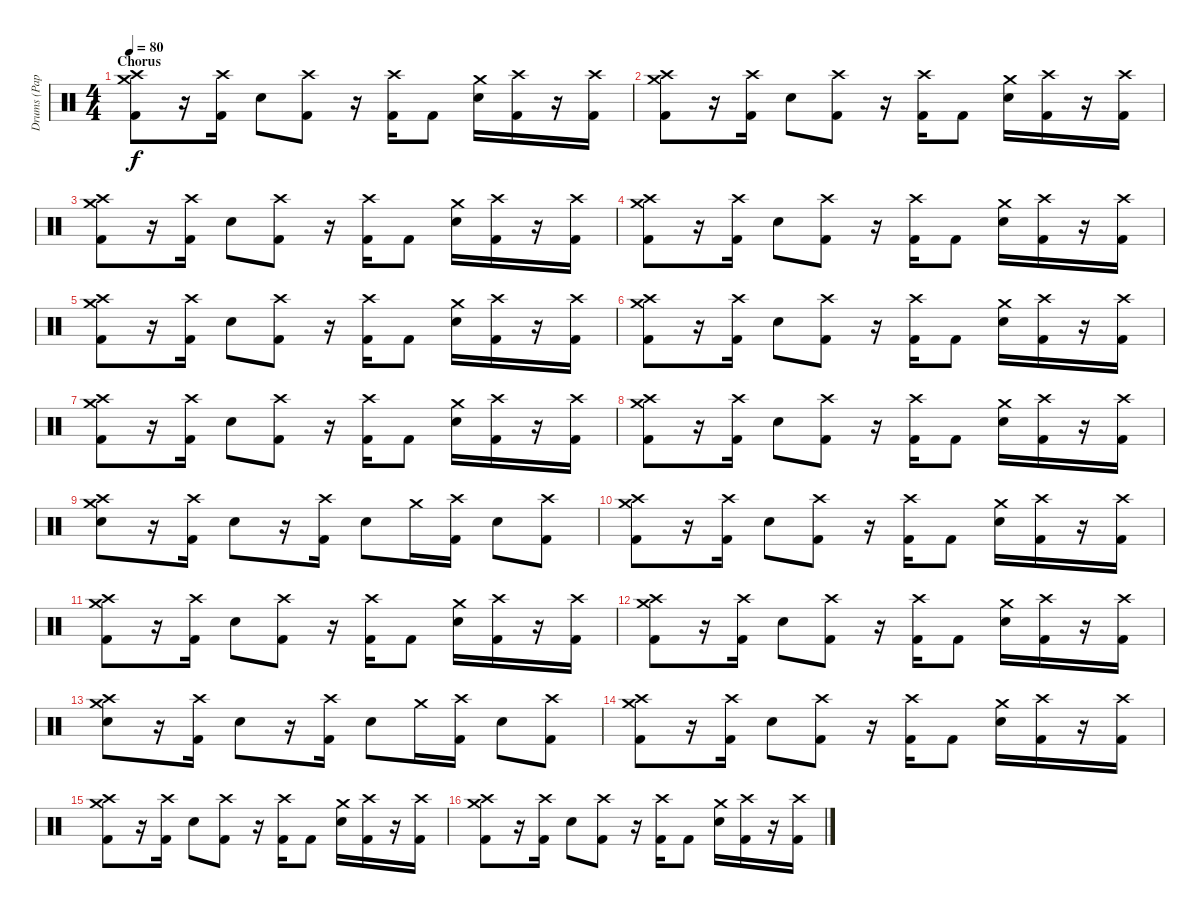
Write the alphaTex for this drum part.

\track ("Drums (Pappas)" "Drums (Pap") {instrument percussion}
\staff {score}
\articulation defaults
\ts (4 4)
\section ("" "Chorus")
\tempo 80
\clef neutral
\ks c
("Crash medium (hit)" "Crash high (hit)" "Kick (hit) 2").8{dy f} r.16 ("Crash high (hit)" "Kick (hit) 2").16 "Electric Snare (hit)".8 ("Crash high (hit)" "Kick (hit) 2").8 r.16 ("Crash high (hit)" "Kick (hit) 2").16 "Kick (hit) 2".8 ("Crash medium (hit)" "Electric Snare (hit)").16 ("Crash high (hit)" "Kick (hit) 2").16 r.16 ("Crash high (hit)" "Kick (hit) 2").16 |
("Crash medium (hit)" "Crash high (hit)" "Kick (hit) 2").8 r.16 ("Crash high (hit)" "Kick (hit) 2").16 "Electric Snare (hit)".8 ("Crash high (hit)" "Kick (hit) 2").8 r.16 ("Crash high (hit)" "Kick (hit) 2").16 "Kick (hit) 2".8 ("Crash medium (hit)" "Electric Snare (hit)").16 ("Crash high (hit)" "Kick (hit) 2").16 r.16 ("Crash high (hit)" "Kick (hit) 2").16 |
("Crash medium (hit)" "Crash high (hit)" "Kick (hit) 2").8 r.16 ("Crash high (hit)" "Kick (hit) 2").16 "Electric Snare (hit)".8 ("Crash high (hit)" "Kick (hit) 2").8 r.16 ("Crash high (hit)" "Kick (hit) 2").16 "Kick (hit) 2".8 ("Crash medium (hit)" "Electric Snare (hit)").16 ("Crash high (hit)" "Kick (hit) 2").16 r.16 ("Crash high (hit)" "Kick (hit) 2").16 |
("Crash medium (hit)" "Crash high (hit)" "Kick (hit) 2").8 r.16 ("Crash high (hit)" "Kick (hit) 2").16 "Electric Snare (hit)".8 ("Crash high (hit)" "Kick (hit) 2").8 r.16 ("Crash high (hit)" "Kick (hit) 2").16 "Kick (hit) 2".8 ("Crash medium (hit)" "Electric Snare (hit)").16 ("Crash high (hit)" "Kick (hit) 2").16 r.16 ("Crash high (hit)" "Kick (hit) 2").16 |
("Crash medium (hit)" "Crash high (hit)" "Kick (hit) 2").8 r.16 ("Crash high (hit)" "Kick (hit) 2").16 "Electric Snare (hit)".8 ("Crash high (hit)" "Kick (hit) 2").8 r.16 ("Crash high (hit)" "Kick (hit) 2").16 "Kick (hit) 2".8 ("Crash medium (hit)" "Electric Snare (hit)").16 ("Crash high (hit)" "Kick (hit) 2").16 r.16 ("Crash high (hit)" "Kick (hit) 2").16 |
("Crash medium (hit)" "Crash high (hit)" "Kick (hit) 2").8 r.16 ("Crash high (hit)" "Kick (hit) 2").16 "Electric Snare (hit)".8 ("Crash high (hit)" "Kick (hit) 2").8 r.16 ("Crash high (hit)" "Kick (hit) 2").16 "Kick (hit) 2".8 ("Crash medium (hit)" "Electric Snare (hit)").16 ("Crash high (hit)" "Kick (hit) 2").16 r.16 ("Crash high (hit)" "Kick (hit) 2").16 |
("Crash medium (hit)" "Crash high (hit)" "Kick (hit) 2").8 r.16 ("Crash high (hit)" "Kick (hit) 2").16 "Electric Snare (hit)".8 ("Crash high (hit)" "Kick (hit) 2").8 r.16 ("Crash high (hit)" "Kick (hit) 2").16 "Kick (hit) 2".8 ("Crash medium (hit)" "Electric Snare (hit)").16 ("Crash high (hit)" "Kick (hit) 2").16 r.16 ("Crash high (hit)" "Kick (hit) 2").16 |
("Crash medium (hit)" "Crash high (hit)" "Kick (hit) 2").8 r.16 ("Crash high (hit)" "Kick (hit) 2").16 "Electric Snare (hit)".8 ("Crash high (hit)" "Kick (hit) 2").8 r.16 ("Crash high (hit)" "Kick (hit) 2").16 "Kick (hit) 2".8 ("Crash medium (hit)" "Electric Snare (hit)").16 ("Crash high (hit)" "Kick (hit) 2").16 r.16 ("Crash high (hit)" "Kick (hit) 2").16 |
("Crash medium (hit)" "Crash high (hit)" "Electric Snare (hit)").8 r.16 ("Crash high (hit)" "Kick (hit) 2").16 "Electric Snare (hit)".8 r.16 ("Crash high (hit)" "Kick (hit) 2").16 "Electric Snare (hit)".8 "Crash medium (hit)".16 ("Crash high (hit)" "Kick (hit) 2").16 "Electric Snare (hit)".8 ("Crash high (hit)" "Kick (hit) 2").8 |
("Crash medium (hit)" "Crash high (hit)" "Kick (hit) 2").8 r.16 ("Crash high (hit)" "Kick (hit) 2").16 "Electric Snare (hit)".8 ("Crash high (hit)" "Kick (hit) 2").8 r.16 ("Crash high (hit)" "Kick (hit) 2").16 "Kick (hit) 2".8 ("Crash medium (hit)" "Electric Snare (hit)").16 ("Crash high (hit)" "Kick (hit) 2").16 r.16 ("Crash high (hit)" "Kick (hit) 2").16 |
("Crash medium (hit)" "Crash high (hit)" "Kick (hit) 2").8 r.16 ("Crash high (hit)" "Kick (hit) 2").16 "Electric Snare (hit)".8 ("Crash high (hit)" "Kick (hit) 2").8 r.16 ("Crash high (hit)" "Kick (hit) 2").16 "Kick (hit) 2".8 ("Crash medium (hit)" "Electric Snare (hit)").16 ("Crash high (hit)" "Kick (hit) 2").16 r.16 ("Crash high (hit)" "Kick (hit) 2").16 |
("Crash medium (hit)" "Crash high (hit)" "Kick (hit) 2").8 r.16 ("Crash high (hit)" "Kick (hit) 2").16 "Electric Snare (hit)".8 ("Crash high (hit)" "Kick (hit) 2").8 r.16 ("Crash high (hit)" "Kick (hit) 2").16 "Kick (hit) 2".8 ("Crash medium (hit)" "Electric Snare (hit)").16 ("Crash high (hit)" "Kick (hit) 2").16 r.16 ("Crash high (hit)" "Kick (hit) 2").16 |
("Crash medium (hit)" "Crash high (hit)" "Electric Snare (hit)").8 r.16 ("Crash high (hit)" "Kick (hit) 2").16 "Electric Snare (hit)".8 r.16 ("Crash high (hit)" "Kick (hit) 2").16 "Electric Snare (hit)".8 "Crash medium (hit)".16 ("Crash high (hit)" "Kick (hit) 2").16 "Electric Snare (hit)".8 ("Crash high (hit)" "Kick (hit) 2").8 |
("Crash medium (hit)" "Crash high (hit)" "Kick (hit) 2").8 r.16 ("Crash high (hit)" "Kick (hit) 2").16 "Electric Snare (hit)".8 ("Crash high (hit)" "Kick (hit) 2").8 r.16 ("Crash high (hit)" "Kick (hit) 2").16 "Kick (hit) 2".8 ("Crash medium (hit)" "Electric Snare (hit)").16 ("Crash high (hit)" "Kick (hit) 2").16 r.16 ("Crash high (hit)" "Kick (hit) 2").16 |
("Crash medium (hit)" "Crash high (hit)" "Kick (hit) 2").8 r.16 ("Crash high (hit)" "Kick (hit) 2").16 "Electric Snare (hit)".8 ("Crash high (hit)" "Kick (hit) 2").8 r.16 ("Crash high (hit)" "Kick (hit) 2").16 "Kick (hit) 2".8 ("Crash medium (hit)" "Electric Snare (hit)").16 ("Crash high (hit)" "Kick (hit) 2").16 r.16 ("Crash high (hit)" "Kick (hit) 2").16 |
("Crash medium (hit)" "Crash high (hit)" "Kick (hit) 2").8 r.16 ("Crash high (hit)" "Kick (hit) 2").16 "Electric Snare (hit)".8 ("Crash high (hit)" "Kick (hit) 2").8 r.16 ("Crash high (hit)" "Kick (hit) 2").16 "Kick (hit) 2".8 ("Crash medium (hit)" "Electric Snare (hit)").16 ("Crash high (hit)" "Kick (hit) 2").16 r.16 ("Crash high (hit)" "Kick (hit) 2").16
